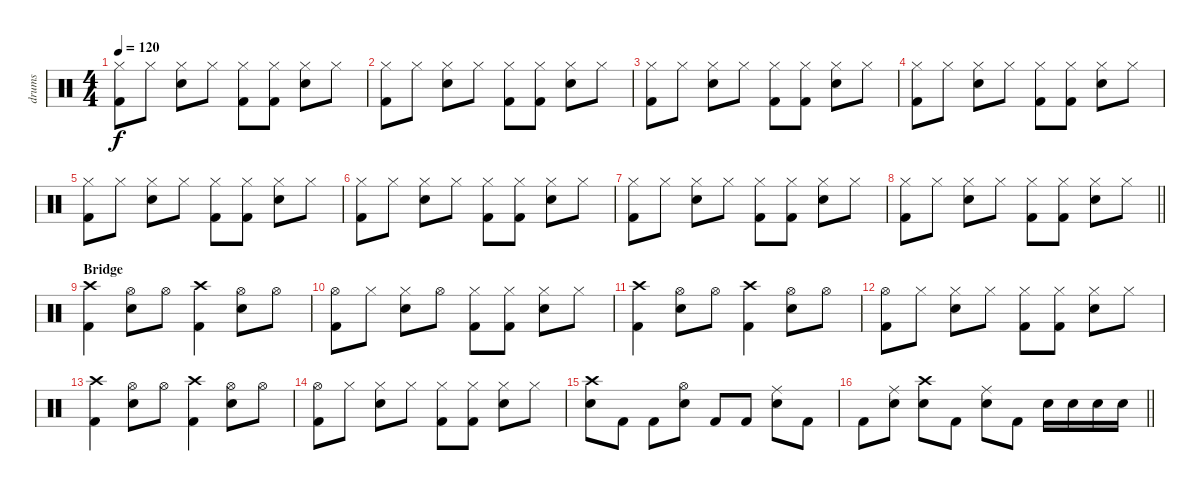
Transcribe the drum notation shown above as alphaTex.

\track ("drums" "drums") {instrument percussion}
\staff {score}
\articulation defaults
\ts (4 4)
\tempo 120
\clef neutral
\ks c
("Hi-Hat (closed)" "Kick (hit) 2").8{dy f} "Hi-Hat (closed)".8 ("Hi-Hat (closed)" "Snare (hit) 2").8 "Hi-Hat (closed)".8 ("Hi-Hat (closed)" "Kick (hit) 2").8 ("Hi-Hat (closed)" "Kick (hit) 2").8 ("Hi-Hat (closed)" "Snare (hit) 2").8 "Hi-Hat (closed)".8 |
("Hi-Hat (closed)" "Kick (hit) 2").8 "Hi-Hat (closed)".8 ("Hi-Hat (closed)" "Snare (hit) 2").8 "Hi-Hat (closed)".8 ("Hi-Hat (closed)" "Kick (hit) 2").8 ("Hi-Hat (closed)" "Kick (hit) 2").8 ("Hi-Hat (closed)" "Snare (hit) 2").8 "Hi-Hat (closed)".8 |
("Hi-Hat (closed)" "Kick (hit) 2").8 "Hi-Hat (closed)".8 ("Hi-Hat (closed)" "Snare (hit) 2").8 "Hi-Hat (closed)".8 ("Hi-Hat (closed)" "Kick (hit) 2").8 ("Hi-Hat (closed)" "Kick (hit) 2").8 ("Hi-Hat (closed)" "Snare (hit) 2").8 "Hi-Hat (closed)".8 |
("Hi-Hat (closed)" "Kick (hit) 2").8 "Hi-Hat (closed)".8 ("Hi-Hat (closed)" "Snare (hit) 2").8 "Hi-Hat (closed)".8 ("Hi-Hat (closed)" "Kick (hit) 2").8 ("Hi-Hat (closed)" "Kick (hit) 2").8 ("Hi-Hat (closed)" "Snare (hit) 2").8 "Hi-Hat (closed)".8 |
("Hi-Hat (closed)" "Kick (hit) 2").8 "Hi-Hat (closed)".8 ("Hi-Hat (closed)" "Snare (hit) 2").8 "Hi-Hat (closed)".8 ("Hi-Hat (closed)" "Kick (hit) 2").8 ("Hi-Hat (closed)" "Kick (hit) 2").8 ("Hi-Hat (closed)" "Snare (hit) 2").8 "Hi-Hat (closed)".8 |
("Hi-Hat (closed)" "Kick (hit) 2").8 "Hi-Hat (closed)".8 ("Hi-Hat (closed)" "Snare (hit) 2").8 "Hi-Hat (closed)".8 ("Hi-Hat (closed)" "Kick (hit) 2").8 ("Hi-Hat (closed)" "Kick (hit) 2").8 ("Hi-Hat (closed)" "Snare (hit) 2").8 "Hi-Hat (closed)".8 |
("Hi-Hat (closed)" "Kick (hit) 2").8 "Hi-Hat (closed)".8 ("Hi-Hat (closed)" "Snare (hit) 2").8 "Hi-Hat (closed)".8 ("Hi-Hat (closed)" "Kick (hit) 2").8 ("Hi-Hat (closed)" "Kick (hit) 2").8 ("Hi-Hat (closed)" "Snare (hit) 2").8 "Hi-Hat (closed)".8 |
\barLineRight lightlight
("Hi-Hat (closed)" "Kick (hit) 2").8 "Hi-Hat (closed)".8 ("Hi-Hat (closed)" "Snare (hit) 2").8 "Hi-Hat (closed)".8 ("Hi-Hat (closed)" "Kick (hit) 2").8 ("Hi-Hat (closed)" "Kick (hit) 2").8 ("Hi-Hat (closed)" "Snare (hit) 2").8 "Hi-Hat (closed)".8 |
\section ("" "Bridge")
("Crash high (hit)" "Kick (hit) 2").4 ("Hi-Hat (open)" "Snare (hit) 2").8 "Hi-Hat (open)".8 ("Crash high (hit)" "Kick (hit) 2").4 ("Hi-Hat (open)" "Snare (hit) 2").8 "Hi-Hat (open)".8 |
("Hi-Hat (open)" "Kick (hit) 2").8 "Hi-Hat (closed)".8 ("Hi-Hat (closed)" "Snare (hit) 2").8 "Hi-Hat (open)".8 ("Hi-Hat (closed)" "Kick (hit) 2").8 ("Hi-Hat (closed)" "Kick (hit) 2").8 ("Hi-Hat (closed)" "Snare (hit) 2").8 "Hi-Hat (closed)".8 |
("Crash high (hit)" "Kick (hit) 2").4 ("Hi-Hat (open)" "Snare (hit) 2").8 "Hi-Hat (open)".8 ("Crash high (hit)" "Kick (hit) 2").4 ("Hi-Hat (open)" "Snare (hit) 2").8 "Hi-Hat (open)".8 |
("Hi-Hat (open)" "Kick (hit) 2").8 "Hi-Hat (closed)".8 ("Hi-Hat (closed)" "Snare (hit) 2").8 "Hi-Hat (closed)".8 ("Hi-Hat (closed)" "Kick (hit) 2").8 ("Hi-Hat (closed)" "Kick (hit) 2").8 ("Hi-Hat (closed)" "Snare (hit) 2").8 "Hi-Hat (closed)".8 |
("Crash high (hit)" "Kick (hit) 2").4 ("Hi-Hat (open)" "Snare (hit) 2").8 "Hi-Hat (open)".8 ("Crash high (hit)" "Kick (hit) 2").4 ("Hi-Hat (open)" "Snare (hit) 2").8 "Hi-Hat (open)".8 |
("Hi-Hat (open)" "Kick (hit) 2").8 "Hi-Hat (closed)".8 ("Hi-Hat (closed)" "Snare (hit) 2").8 "Hi-Hat (closed)".8 ("Hi-Hat (closed)" "Kick (hit) 2").8 ("Hi-Hat (closed)" "Kick (hit) 2").8 ("Hi-Hat (closed)" "Snare (hit) 2").8 "Hi-Hat (closed)".8 |
("Crash high (hit)" "Snare (hit) 2").8 "Kick (hit) 2".8 "Kick (hit) 2".8 ("Hi-Hat (open)" "Snare (hit) 2").8 "Kick (hit) 2".8 "Kick (hit) 2".8 ("Ride (middle)" "Snare (hit) 2").8 "Kick (hit) 2".8 |
\barLineRight lightlight "Kick (hit) 2".8
("Ride (middle)" "Snare (hit) 2").8 ("Crash high (hit)" "Snare (hit) 2").8 "Kick (hit) 2".8 ("Ride (middle)" "Snare (hit) 2").8 "Kick (hit) 2".8 "Snare (hit) 2".16 "Snare (hit) 2".16 "Snare (hit) 2".16 "Snare (hit) 2".16
